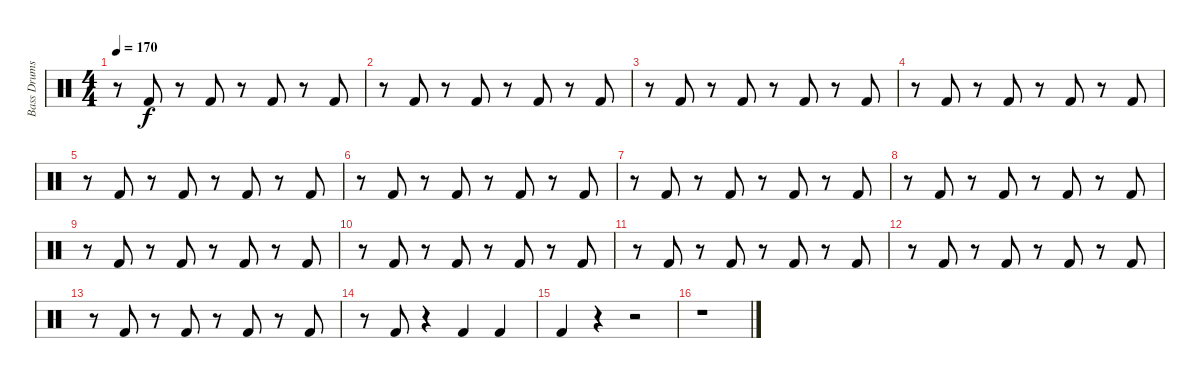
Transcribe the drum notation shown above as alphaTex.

\track ("Bass Drums" "Bass Drums") {instrument percussion}
\staff {score}
\articulation defaults
\ts (4 4)
\tempo 170
\clef neutral
\ks c
r.8{dy f} "Kick (hit) 2".8 r.8 "Kick (hit) 2".8 r.8 "Kick (hit) 2".8 r.8 "Kick (hit) 2".8 |
r.8 "Kick (hit) 2".8 r.8 "Kick (hit) 2".8 r.8 "Kick (hit) 2".8 r.8 "Kick (hit) 2".8 |
r.8 "Kick (hit) 2".8 r.8 "Kick (hit) 2".8 r.8 "Kick (hit) 2".8 r.8 "Kick (hit) 2".8 |
r.8 "Kick (hit) 2".8 r.8 "Kick (hit) 2".8 r.8 "Kick (hit) 2".8 r.8 "Kick (hit) 2".8 |
r.8 "Kick (hit) 2".8 r.8 "Kick (hit) 2".8 r.8 "Kick (hit) 2".8 r.8 "Kick (hit) 2".8 |
r.8 "Kick (hit) 2".8 r.8 "Kick (hit) 2".8 r.8 "Kick (hit) 2".8 r.8 "Kick (hit) 2".8 |
r.8 "Kick (hit) 2".8 r.8 "Kick (hit) 2".8 r.8 "Kick (hit) 2".8 r.8 "Kick (hit) 2".8 |
r.8 "Kick (hit) 2".8 r.8 "Kick (hit) 2".8 r.8 "Kick (hit) 2".8 r.8 "Kick (hit) 2".8 |
r.8 "Kick (hit) 2".8 r.8 "Kick (hit) 2".8 r.8 "Kick (hit) 2".8 r.8 "Kick (hit) 2".8 |
r.8 "Kick (hit) 2".8 r.8 "Kick (hit) 2".8 r.8 "Kick (hit) 2".8 r.8 "Kick (hit) 2".8 |
r.8 "Kick (hit) 2".8 r.8 "Kick (hit) 2".8 r.8 "Kick (hit) 2".8 r.8 "Kick (hit) 2".8 |
r.8 "Kick (hit) 2".8 r.8 "Kick (hit) 2".8 r.8 "Kick (hit) 2".8 r.8 "Kick (hit) 2".8 |
r.8 "Kick (hit) 2".8 r.8 "Kick (hit) 2".8 r.8 "Kick (hit) 2".8 r.8 "Kick (hit) 2".8 |
r.8 "Kick (hit) 2".8 r.4 "Kick (hit) 2".4 "Kick (hit) 2".4 |
"Kick (hit) 2".4 r.4 r.2 |
r.1
